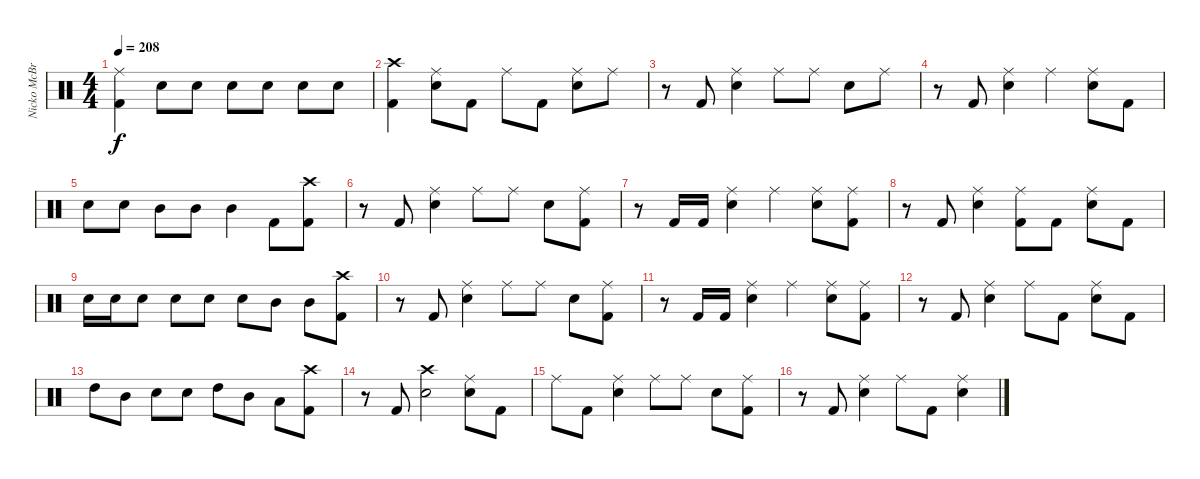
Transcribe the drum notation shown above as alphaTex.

\track ("Nicko McBrain" "Nicko McBr") {instrument percussion}
\staff {score}
\articulation defaults
\ts (4 4)
\tempo 208
\clef neutral
\ks c
("Ride (middle)" "Kick (hit) 2").4{dy f} "Electric Snare (hit)".8 "Electric Snare (hit)".8 "Electric Snare (hit)".8 "Electric Snare (hit)".8 "Electric Snare (hit)".8 "Electric Snare (hit)".8 |
("Crash high (hit)" "Kick (hit) 2").4 ("Ride (middle)" "Electric Snare (hit)").8 "Kick (hit) 2".8 "Ride (middle)".8 "Kick (hit) 2".8 ("Ride (middle)" "Electric Snare (hit)").8 "Ride (middle)".8 |
r.8 "Kick (hit) 2".8 ("Ride (middle)" "Electric Snare (hit)").4 "Ride (middle)".8 "Ride (middle)".8 "Electric Snare (hit)".8 "Ride (middle)".8 |
r.8 "Kick (hit) 2".8 ("Ride (middle)" "Electric Snare (hit)").4 "Ride (middle)".4 ("Ride (middle)" "Electric Snare (hit)").8 "Kick (hit) 2".8 |
"Electric Snare (hit)".8 "Electric Snare (hit)".8 "Mid Tom (hit)".8 "Mid Tom (hit)".8 "Mid Tom (hit)".4 "Kick (hit) 2".8 ("Crash high (hit)" "Kick (hit) 2").8 |
r.8 "Kick (hit) 2".8 ("Ride (middle)" "Electric Snare (hit)").4 "Ride (middle)".8 "Ride (middle)".8 "Electric Snare (hit)".8 ("Ride (middle)" "Kick (hit) 2").8 |
r.8 "Kick (hit) 2".16 "Kick (hit) 2".16 ("Ride (middle)" "Electric Snare (hit)").4 "Ride (middle)".4 ("Ride (middle)" "Electric Snare (hit)").8 ("Ride (middle)" "Kick (hit) 2").8 |
r.8 "Kick (hit) 2".8 ("Ride (middle)" "Electric Snare (hit)").4 ("Ride (middle)" "Kick (hit) 2").8 "Kick (hit) 2".8 ("Ride (middle)" "Electric Snare (hit)").8 "Kick (hit) 2".8 |
"Electric Snare (hit)".16 "Electric Snare (hit)".16 "Electric Snare (hit)".8 "Electric Snare (hit)".8 "Electric Snare (hit)".8 "Electric Snare (hit)".8 "Mid Tom (hit)".8 "Mid Tom (hit)".8 ("Crash high (hit)" "Kick (hit) 2").8 |
r.8 "Kick (hit) 2".8 ("Ride (middle)" "Electric Snare (hit)").4 "Ride (middle)".8 "Ride (middle)".8 "Electric Snare (hit)".8 ("Ride (middle)" "Kick (hit) 2").8 |
r.8 "Kick (hit) 2".16 "Kick (hit) 2".16 ("Ride (middle)" "Electric Snare (hit)").4 "Ride (middle)".4 ("Ride (middle)" "Electric Snare (hit)").8 ("Ride (middle)" "Kick (hit) 2").8 |
r.8 "Kick (hit) 2".8 ("Ride (middle)" "Electric Snare (hit)").4 "Ride (middle)".8 "Kick (hit) 2".8 ("Ride (middle)" "Electric Snare (hit)").8 "Kick (hit) 2".8 |
"High Tom (hit)".8 "Mid Tom (hit)".8 "Electric Snare (hit)".8 "Electric Snare (hit)".8 "High Tom (hit)".8 "Mid Tom (hit)".8 "Low Tom (hit)".8 ("Crash high (hit)" "Kick (hit) 2").8 |
r.8 "Kick (hit) 2".8 ("Crash high (hit)" "Electric Snare (hit)").2 ("Ride (middle)" "Electric Snare (hit)").8 "Kick (hit) 2".8 |
"Ride (middle)".8 "Kick (hit) 2".8 ("Ride (middle)" "Electric Snare (hit)").4 "Ride (middle)".8 "Ride (middle)".8 "Electric Snare (hit)".8 ("Ride (middle)" "Kick (hit) 2").8 |
r.8 "Kick (hit) 2".8 ("Ride (middle)" "Electric Snare (hit)").4 "Ride (middle)".8 "Kick (hit) 2".8 ("Ride (middle)" "Electric Snare (hit)").4
